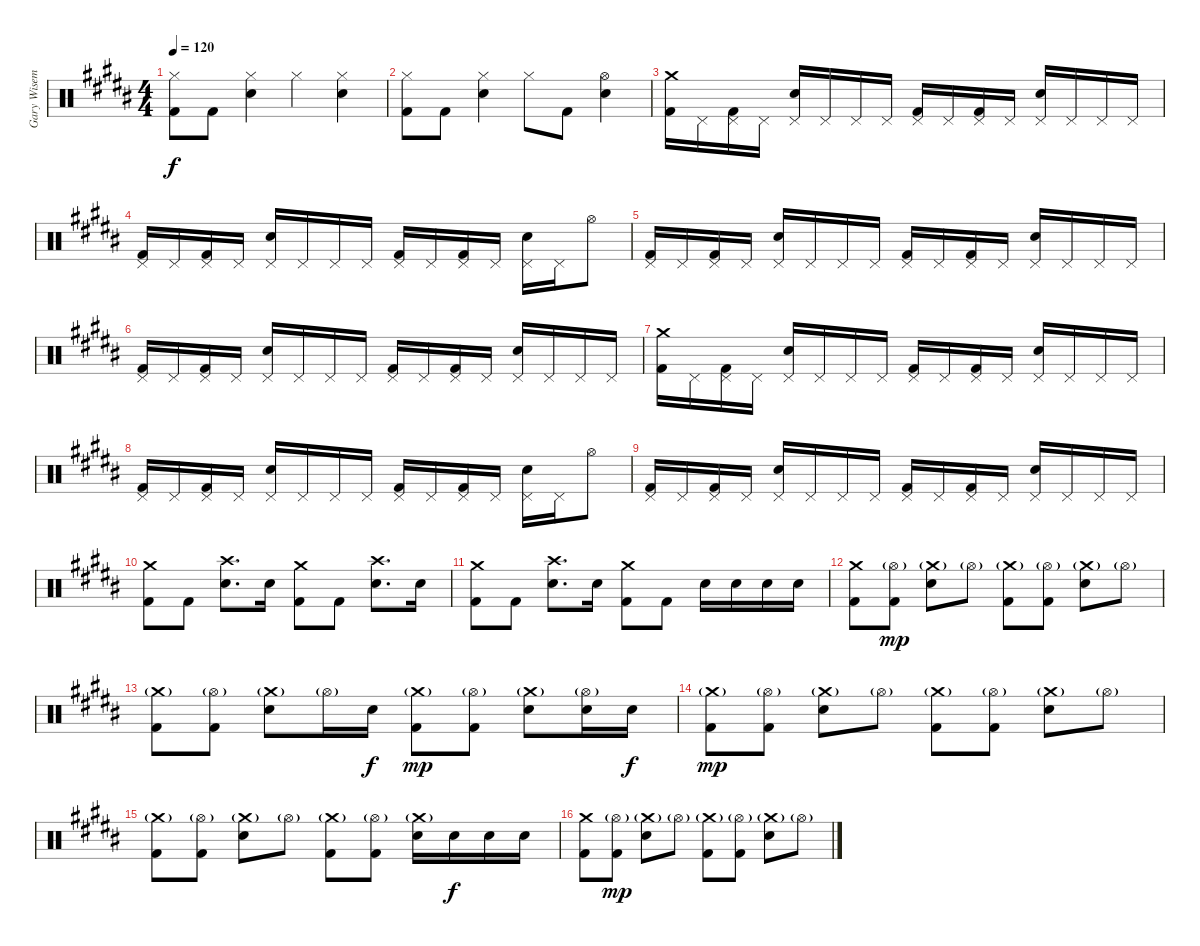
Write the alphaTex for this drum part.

\track ("Gary Wiseman - Drums" "Gary Wisem") {instrument percussion}
\staff {score}
\articulation defaults
\ts (4 4)
\tempo 120
\clef neutral
\ks b
("Hi-Hat (closed)" "Kick (hit) 2").8{dy f} "Kick (hit) 2".8 ("Hi-Hat (closed)" "Electric Snare (hit)").4 "Hi-Hat (closed)".4 ("Hi-Hat (closed)" "Electric Snare (hit)").4 |
("Hi-Hat (closed)" "Kick (hit) 2").8 "Kick (hit) 2".8 ("Hi-Hat (closed)" "Electric Snare (hit)").4 "Hi-Hat (closed)".8 "Kick (hit) 2".8 ("Hi-Hat (open)" "Electric Snare (hit)").4 |
("Crash medium (hit)" "Kick (hit) 2").16 "Pedal Hi-Hat (hit)".16 ("Pedal Hi-Hat (hit)" "Kick (hit) 2").16 "Pedal Hi-Hat (hit)".16 ("Pedal Hi-Hat (hit)" "Electric Snare (hit)").16 "Pedal Hi-Hat (hit)".16 "Pedal Hi-Hat (hit)".16 "Pedal Hi-Hat (hit)".16 ("Pedal Hi-Hat (hit)" "Kick (hit) 2").16 "Pedal Hi-Hat (hit)".16 ("Pedal Hi-Hat (hit)" "Kick (hit) 2").16 "Pedal Hi-Hat (hit)".16 ("Pedal Hi-Hat (hit)" "Electric Snare (hit)").16 "Pedal Hi-Hat (hit)".16 "Pedal Hi-Hat (hit)".16 "Pedal Hi-Hat (hit)".16 |
("Pedal Hi-Hat (hit)" "Kick (hit) 2").16 "Pedal Hi-Hat (hit)".16 ("Pedal Hi-Hat (hit)" "Kick (hit) 2").16 "Pedal Hi-Hat (hit)".16 ("Pedal Hi-Hat (hit)" "Electric Snare (hit)").16 "Pedal Hi-Hat (hit)".16 "Pedal Hi-Hat (hit)".16 "Pedal Hi-Hat (hit)".16 ("Pedal Hi-Hat (hit)" "Kick (hit) 2").16 "Pedal Hi-Hat (hit)".16 ("Pedal Hi-Hat (hit)" "Kick (hit) 2").16 "Pedal Hi-Hat (hit)".16 ("Pedal Hi-Hat (hit)" "Electric Snare (hit)").16 "Pedal Hi-Hat (hit)".16 "Hi-Hat (open)".8 |
("Pedal Hi-Hat (hit)" "Kick (hit) 2").16 "Pedal Hi-Hat (hit)".16 ("Pedal Hi-Hat (hit)" "Kick (hit) 2").16 "Pedal Hi-Hat (hit)".16 ("Pedal Hi-Hat (hit)" "Electric Snare (hit)").16 "Pedal Hi-Hat (hit)".16 "Pedal Hi-Hat (hit)".16 "Pedal Hi-Hat (hit)".16 ("Pedal Hi-Hat (hit)" "Kick (hit) 2").16 "Pedal Hi-Hat (hit)".16 ("Pedal Hi-Hat (hit)" "Kick (hit) 2").16 "Pedal Hi-Hat (hit)".16 ("Pedal Hi-Hat (hit)" "Electric Snare (hit)").16 "Pedal Hi-Hat (hit)".16 "Pedal Hi-Hat (hit)".16 "Pedal Hi-Hat (hit)".16 |
("Pedal Hi-Hat (hit)" "Kick (hit) 2").16 "Pedal Hi-Hat (hit)".16 ("Pedal Hi-Hat (hit)" "Kick (hit) 2").16 "Pedal Hi-Hat (hit)".16 ("Pedal Hi-Hat (hit)" "Electric Snare (hit)").16 "Pedal Hi-Hat (hit)".16 "Pedal Hi-Hat (hit)".16 "Pedal Hi-Hat (hit)".16 ("Pedal Hi-Hat (hit)" "Kick (hit) 2").16 "Pedal Hi-Hat (hit)".16 ("Pedal Hi-Hat (hit)" "Kick (hit) 2").16 "Pedal Hi-Hat (hit)".16 ("Pedal Hi-Hat (hit)" "Electric Snare (hit)").16 "Pedal Hi-Hat (hit)".16 "Pedal Hi-Hat (hit)".16 "Pedal Hi-Hat (hit)".16 |
("Crash medium (hit)" "Kick (hit) 2").16 "Pedal Hi-Hat (hit)".16 ("Pedal Hi-Hat (hit)" "Kick (hit) 2").16 "Pedal Hi-Hat (hit)".16 ("Pedal Hi-Hat (hit)" "Electric Snare (hit)").16 "Pedal Hi-Hat (hit)".16 "Pedal Hi-Hat (hit)".16 "Pedal Hi-Hat (hit)".16 ("Pedal Hi-Hat (hit)" "Kick (hit) 2").16 "Pedal Hi-Hat (hit)".16 ("Pedal Hi-Hat (hit)" "Kick (hit) 2").16 "Pedal Hi-Hat (hit)".16 ("Pedal Hi-Hat (hit)" "Electric Snare (hit)").16 "Pedal Hi-Hat (hit)".16 "Pedal Hi-Hat (hit)".16 "Pedal Hi-Hat (hit)".16 |
("Pedal Hi-Hat (hit)" "Kick (hit) 2").16 "Pedal Hi-Hat (hit)".16 ("Pedal Hi-Hat (hit)" "Kick (hit) 2").16 "Pedal Hi-Hat (hit)".16 ("Pedal Hi-Hat (hit)" "Electric Snare (hit)").16 "Pedal Hi-Hat (hit)".16 "Pedal Hi-Hat (hit)".16 "Pedal Hi-Hat (hit)".16 ("Pedal Hi-Hat (hit)" "Kick (hit) 2").16 "Pedal Hi-Hat (hit)".16 ("Pedal Hi-Hat (hit)" "Kick (hit) 2").16 "Pedal Hi-Hat (hit)".16 ("Pedal Hi-Hat (hit)" "Electric Snare (hit)").16 "Pedal Hi-Hat (hit)".16 "Hi-Hat (open)".8 |
("Pedal Hi-Hat (hit)" "Kick (hit) 2").16 "Pedal Hi-Hat (hit)".16 ("Pedal Hi-Hat (hit)" "Kick (hit) 2").16 "Pedal Hi-Hat (hit)".16 ("Pedal Hi-Hat (hit)" "Electric Snare (hit)").16 "Pedal Hi-Hat (hit)".16 "Pedal Hi-Hat (hit)".16 "Pedal Hi-Hat (hit)".16 ("Pedal Hi-Hat (hit)" "Kick (hit) 2").16 "Pedal Hi-Hat (hit)".16 ("Pedal Hi-Hat (hit)" "Kick (hit) 2").16 "Pedal Hi-Hat (hit)".16 ("Pedal Hi-Hat (hit)" "Electric Snare (hit)").16 "Pedal Hi-Hat (hit)".16 "Pedal Hi-Hat (hit)".16 "Pedal Hi-Hat (hit)".16 |
("Crash medium (hit)" "Kick (hit) 2").8 "Kick (hit) 2".8 ("Crash high (hit)" "Electric Snare (hit)").8{d} "Electric Snare (hit)".16 ("Crash medium (hit)" "Kick (hit) 2").8 "Kick (hit) 2".8 ("Crash high (hit)" "Electric Snare (hit)").8{d} "Electric Snare (hit)".16 |
("Crash medium (hit)" "Kick (hit) 2").8 "Kick (hit) 2".8 ("Crash high (hit)" "Electric Snare (hit)").8{d} "Electric Snare (hit)".16 ("Crash medium (hit)" "Kick (hit) 2").8 "Kick (hit) 2".8 "Electric Snare (hit)".16 "Electric Snare (hit)".16 "Electric Snare (hit)".16 "Electric Snare (hit)".16 |
("Crash medium (hit)" "Kick (hit) 2").8 ("Hi-Hat (open)"{g} "Kick (hit) 2").8{dy mp} ("Crash medium (hit)"{g} "Electric Snare (hit)").8 "Hi-Hat (open)"{g}.8 ("Crash medium (hit)"{g} "Kick (hit) 2").8 ("Hi-Hat (open)"{g} "Kick (hit) 2").8 ("Crash medium (hit)"{g} "Electric Snare (hit)").8 "Hi-Hat (open)"{g}.8 |
("Crash medium (hit)"{g} "Kick (hit) 2").8 ("Hi-Hat (open)"{g} "Kick (hit) 2").8 ("Crash medium (hit)"{g} "Electric Snare (hit)").8 "Hi-Hat (open)"{g}.16 "Electric Snare (hit)".16{dy f} ("Crash medium (hit)"{g} "Kick (hit) 2").8{dy mp} ("Hi-Hat (open)"{g} "Kick (hit) 2").8 ("Crash medium (hit)"{g} "Electric Snare (hit)").8 ("Hi-Hat (open)"{g} "Electric Snare (hit)").16 "Electric Snare (hit)".16{dy f} |
("Crash medium (hit)"{g} "Kick (hit) 2").8{dy mp} ("Hi-Hat (open)"{g} "Kick (hit) 2").8 ("Crash medium (hit)"{g} "Electric Snare (hit)").8 "Hi-Hat (open)"{g}.8 ("Crash medium (hit)"{g} "Kick (hit) 2").8 ("Hi-Hat (open)"{g} "Kick (hit) 2").8 ("Crash medium (hit)"{g} "Electric Snare (hit)").8 "Hi-Hat (open)"{g}.8 |
("Crash medium (hit)"{g} "Kick (hit) 2").8 ("Hi-Hat (open)"{g} "Kick (hit) 2").8 ("Crash medium (hit)"{g} "Electric Snare (hit)").8 "Hi-Hat (open)"{g}.8 ("Crash medium (hit)"{g} "Kick (hit) 2").8 ("Hi-Hat (open)"{g} "Kick (hit) 2").8 ("Crash medium (hit)"{g} "Electric Snare (hit)").16 "Electric Snare (hit)".16{dy f} "Electric Snare (hit)".16 "Electric Snare (hit)".16 |
("Crash medium (hit)" "Kick (hit) 2").8 ("Hi-Hat (open)"{g} "Kick (hit) 2").8{dy mp} ("Crash medium (hit)"{g} "Electric Snare (hit)").8 "Hi-Hat (open)"{g}.8 ("Crash medium (hit)"{g} "Kick (hit) 2").8 ("Hi-Hat (open)"{g} "Kick (hit) 2").8 ("Crash medium (hit)"{g} "Electric Snare (hit)").8 "Hi-Hat (open)"{g}.8
